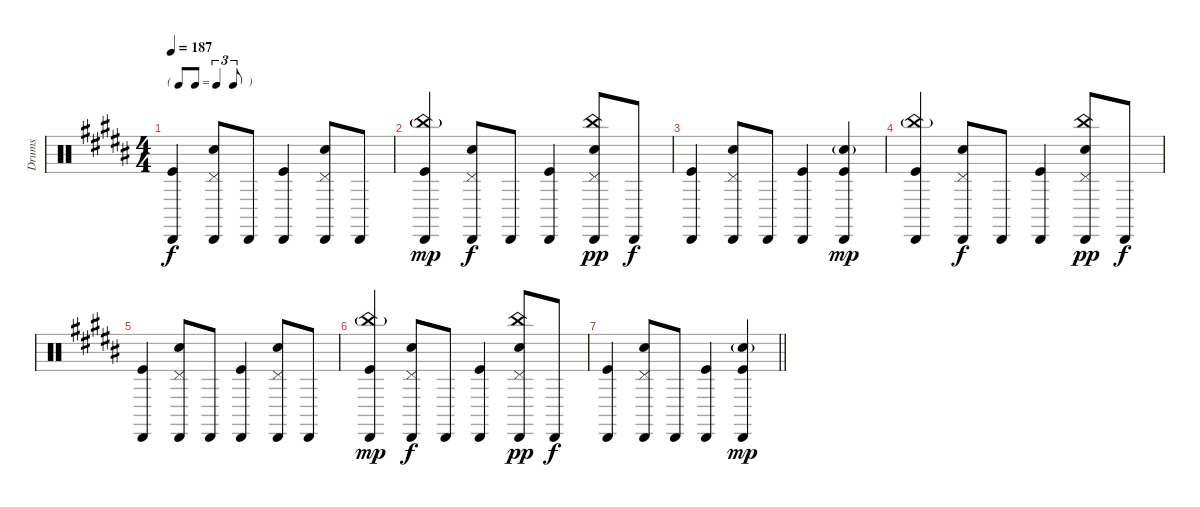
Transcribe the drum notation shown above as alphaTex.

\track ("Drums" "Drums") {instrument percussion}
\staff {score}
\articulation defaults
\ts (4 4)
\tf triplet8th
\tempo 187
\clef neutral
\ks b
("Cabasa (hit)" "Kick (hit)").4{dy f} ("Pedal Hi-Hat (hit)" "Cabasa (hit)" "Snare (hit) 2").8 "Cabasa (hit)".8 ("Cabasa (hit)" "Kick (hit)").4 ("Pedal Hi-Hat (hit)" "Cabasa (hit)" "Snare (hit) 2").8 "Cabasa (hit)".8 |
("China (hit)"{g} "Cabasa (hit)" "Kick (hit)").4{dy mp} ("Pedal Hi-Hat (hit)" "Cabasa (hit)" "Snare (hit) 2").8{dy f} "Cabasa (hit)".8 ("Cabasa (hit)" "Kick (hit)").4 ("Pedal Hi-Hat (hit)" "Cabasa (hit)" "Snare (hit) 2" "China (hit)").8{dy pp} "Cabasa (hit)".8{dy f} |
("Cabasa (hit)" "Kick (hit)").4 ("Pedal Hi-Hat (hit)" "Cabasa (hit)" "Snare (hit) 2").8 "Cabasa (hit)".8 ("Cabasa (hit)" "Kick (hit)").4 ("Cabasa (hit)" "Snare (hit) 2"{g} "Kick (hit)").4{dy mp} |
("China (hit)"{g} "Cabasa (hit)" "Kick (hit)").4 ("Pedal Hi-Hat (hit)" "Cabasa (hit)" "Snare (hit) 2").8{dy f} "Cabasa (hit)".8 ("Cabasa (hit)" "Kick (hit)").4 ("Pedal Hi-Hat (hit)" "Cabasa (hit)" "Snare (hit) 2" "China (hit)").8{dy pp} "Cabasa (hit)".8{dy f} |
("Cabasa (hit)" "Kick (hit)").4 ("Pedal Hi-Hat (hit)" "Cabasa (hit)" "Snare (hit) 2").8 "Cabasa (hit)".8 ("Cabasa (hit)" "Kick (hit)").4 ("Pedal Hi-Hat (hit)" "Cabasa (hit)" "Snare (hit) 2").8 "Cabasa (hit)".8 |
("China (hit)"{g} "Cabasa (hit)" "Kick (hit)").4{dy mp} ("Pedal Hi-Hat (hit)" "Cabasa (hit)" "Snare (hit) 2").8{dy f} "Cabasa (hit)".8 ("Cabasa (hit)" "Kick (hit)").4 ("Pedal Hi-Hat (hit)" "Cabasa (hit)" "Snare (hit) 2" "China (hit)").8{dy pp} "Cabasa (hit)".8{dy f} |
\barLineRight lightlight
("Cabasa (hit)" "Kick (hit)").4 ("Pedal Hi-Hat (hit)" "Cabasa (hit)" "Snare (hit) 2").8 "Cabasa (hit)".8 ("Cabasa (hit)" "Kick (hit)").4 ("Cabasa (hit)" "Snare (hit) 2"{g} "Kick (hit)").4{dy mp}
